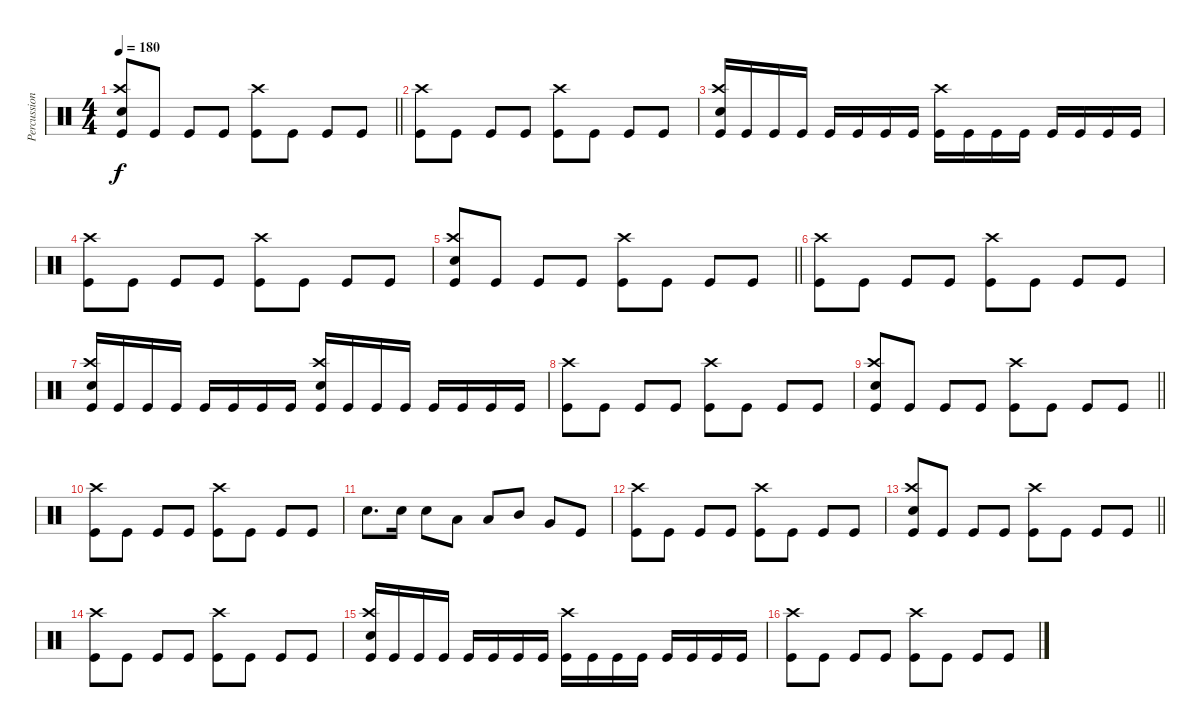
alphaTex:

\track ("Percussion" "Percussion") {instrument percussion}
\staff {score}
\articulation defaults
\ts (4 4)
\tempo 180
\clef neutral
\barLineRight lightlight
\ks c
("Snare (hit) 2" "Crash high (hit)" "Kick (hit)").8{dy f} "Kick (hit)".8 "Kick (hit)".8 "Kick (hit)".8 ("Crash high (hit)" "Kick (hit)").8 "Kick (hit)".8 "Kick (hit)".8 "Kick (hit)".8 |
("Crash high (hit)" "Kick (hit)").8 "Kick (hit)".8 "Kick (hit)".8 "Kick (hit)".8 ("Crash high (hit)" "Kick (hit)").8 "Kick (hit)".8 "Kick (hit)".8 "Kick (hit)".8 |
("Crash high (hit)" "Snare (hit) 2" "Kick (hit)").16 "Kick (hit)".16 "Kick (hit)".16 "Kick (hit)".16 "Kick (hit)".16 "Kick (hit)".16 "Kick (hit)".16 "Kick (hit)".16 ("Crash high (hit)" "Kick (hit)").16 "Kick (hit)".16 "Kick (hit)".16 "Kick (hit)".16 "Kick (hit)".16 "Kick (hit)".16 "Kick (hit)".16 "Kick (hit)".16 |
("Crash high (hit)" "Kick (hit)").8 "Kick (hit)".8 "Kick (hit)".8 "Kick (hit)".8 ("Crash high (hit)" "Kick (hit)").8 "Kick (hit)".8 "Kick (hit)".8 "Kick (hit)".8 |
\barLineRight lightlight
("Snare (hit) 2" "Crash high (hit)" "Kick (hit)").8 "Kick (hit)".8 "Kick (hit)".8 "Kick (hit)".8 ("Crash high (hit)" "Kick (hit)").8 "Kick (hit)".8 "Kick (hit)".8 "Kick (hit)".8 |
("Crash high (hit)" "Kick (hit)").8 "Kick (hit)".8 "Kick (hit)".8 "Kick (hit)".8 ("Crash high (hit)" "Kick (hit)").8 "Kick (hit)".8 "Kick (hit)".8 "Kick (hit)".8 |
("Crash high (hit)" "Snare (hit) 2" "Kick (hit)").16 "Kick (hit)".16 "Kick (hit)".16 "Kick (hit)".16 "Kick (hit)".16 "Kick (hit)".16 "Kick (hit)".16 "Kick (hit)".16 ("Snare (hit) 2" "Crash high (hit)" "Kick (hit)").16 "Kick (hit)".16 "Kick (hit)".16 "Kick (hit)".16 "Kick (hit)".16 "Kick (hit)".16 "Kick (hit)".16 "Kick (hit)".16 |
("Crash high (hit)" "Kick (hit)").8 "Kick (hit)".8 "Kick (hit)".8 "Kick (hit)".8 ("Crash high (hit)" "Kick (hit)").8 "Kick (hit)".8 "Kick (hit)".8 "Kick (hit)".8 |
\barLineRight lightlight
("Snare (hit) 2" "Crash high (hit)" "Kick (hit)").8 "Kick (hit)".8 "Kick (hit)".8 "Kick (hit)".8 ("Crash high (hit)" "Kick (hit)").8 "Kick (hit)".8 "Kick (hit)".8 "Kick (hit)".8 |
("Crash high (hit)" "Kick (hit)").8 "Kick (hit)".8 "Kick (hit)".8 "Kick (hit)".8 ("Crash high (hit)" "Kick (hit)").8 "Kick (hit)".8 "Kick (hit)".8 "Kick (hit)".8 |
"Snare (hit) 2".8{d} "Snare (hit) 2".16 "Snare (hit) 2".8 "Low Tom (hit)".8 "Low Tom (hit)".8 "Mid Tom (hit)".8 "Very Low Tom (hit)".8 "Kick (hit)".8 |
("Crash high (hit)" "Kick (hit)").8 "Kick (hit)".8 "Kick (hit)".8 "Kick (hit)".8 ("Crash high (hit)" "Kick (hit)").8 "Kick (hit)".8 "Kick (hit)".8 "Kick (hit)".8 |
\barLineRight lightlight
("Snare (hit) 2" "Crash high (hit)" "Kick (hit)").8 "Kick (hit)".8 "Kick (hit)".8 "Kick (hit)".8 ("Crash high (hit)" "Kick (hit)").8 "Kick (hit)".8 "Kick (hit)".8 "Kick (hit)".8 |
("Crash high (hit)" "Kick (hit)").8 "Kick (hit)".8 "Kick (hit)".8 "Kick (hit)".8 ("Crash high (hit)" "Kick (hit)").8 "Kick (hit)".8 "Kick (hit)".8 "Kick (hit)".8 |
("Crash high (hit)" "Snare (hit) 2" "Kick (hit)").16 "Kick (hit)".16 "Kick (hit)".16 "Kick (hit)".16 "Kick (hit)".16 "Kick (hit)".16 "Kick (hit)".16 "Kick (hit)".16 ("Crash high (hit)" "Kick (hit)").16 "Kick (hit)".16 "Kick (hit)".16 "Kick (hit)".16 "Kick (hit)".16 "Kick (hit)".16 "Kick (hit)".16 "Kick (hit)".16 |
("Crash high (hit)" "Kick (hit)").8 "Kick (hit)".8 "Kick (hit)".8 "Kick (hit)".8 ("Crash high (hit)" "Kick (hit)").8 "Kick (hit)".8 "Kick (hit)".8 "Kick (hit)".8
